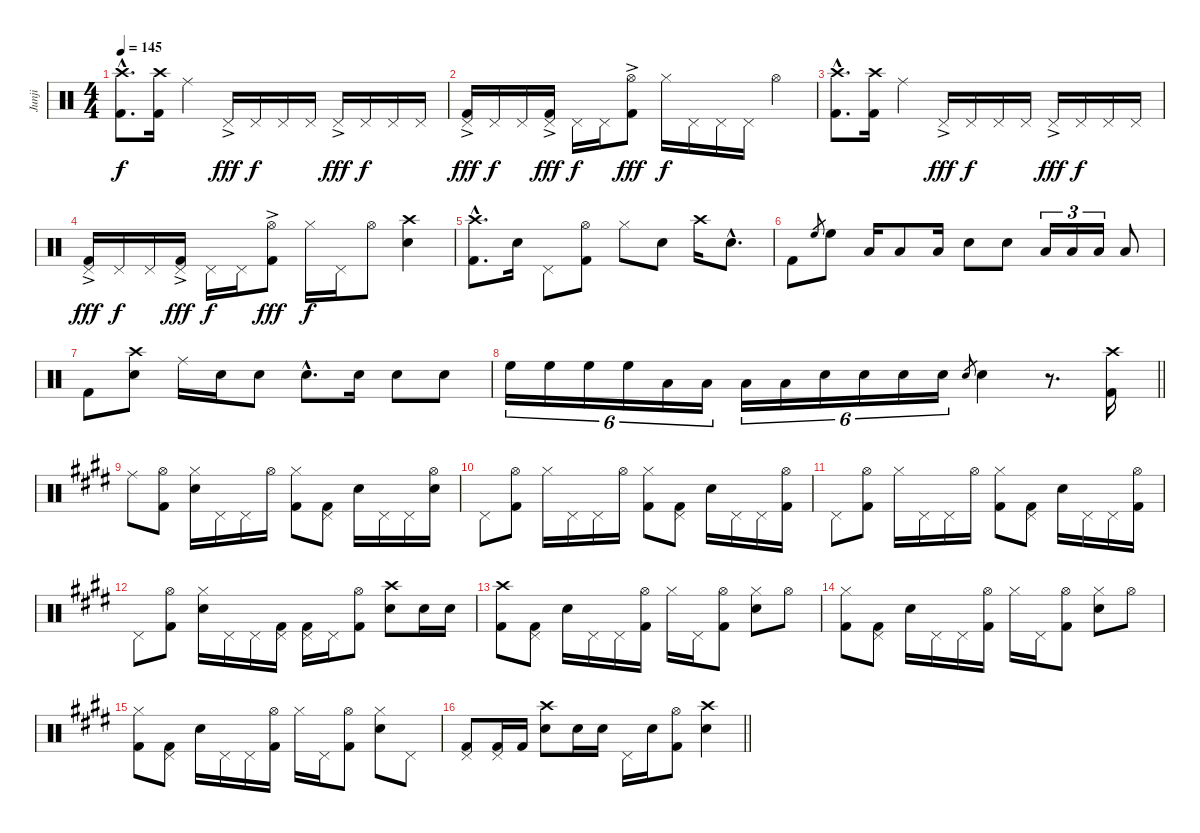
\track ("Junji" "Junji") {instrument percussion}
\staff {score}
\articulation defaults
\ts (4 4)
\tempo 145
\clef neutral
\ks c
("Crash high (hit)"{hac} "Kick (hit) 2"{hac}).8{d dy f} ("Crash high (hit)" "Kick (hit) 2").16 "Ride (middle)".4 "Pedal Hi-Hat (hit)"{ac}.16{dy fff} "Pedal Hi-Hat (hit)".16{dy f} "Pedal Hi-Hat (hit)".16 "Pedal Hi-Hat (hit)".16 "Pedal Hi-Hat (hit)"{ac}.16{dy fff} "Pedal Hi-Hat (hit)".16{dy f} "Pedal Hi-Hat (hit)".16 "Pedal Hi-Hat (hit)".16 |
("Pedal Hi-Hat (hit)"{ac} "Kick (hit) 2").16{dy fff} "Pedal Hi-Hat (hit)".16{dy f} "Pedal Hi-Hat (hit)".16 ("Pedal Hi-Hat (hit)"{ac} "Kick (hit) 2").16{dy fff} "Pedal Hi-Hat (hit)".16{dy f} "Pedal Hi-Hat (hit)".16 ("Hi-Hat (open)"{ac} "Kick (hit) 2").8{dy fff} "Hi-Hat (closed)".16{dy f} "Pedal Hi-Hat (hit)".16 "Pedal Hi-Hat (hit)".16 "Pedal Hi-Hat (hit)".16 "Hi-Hat (open)".4 |
("Crash high (hit)"{hac} "Kick (hit) 2"{hac}).8{d} ("Crash high (hit)" "Kick (hit) 2").16 "Ride (middle)".4 "Pedal Hi-Hat (hit)"{ac}.16{dy fff} "Pedal Hi-Hat (hit)".16{dy f} "Pedal Hi-Hat (hit)".16 "Pedal Hi-Hat (hit)".16 "Pedal Hi-Hat (hit)"{ac}.16{dy fff} "Pedal Hi-Hat (hit)".16{dy f} "Pedal Hi-Hat (hit)".16 "Pedal Hi-Hat (hit)".16 |
("Pedal Hi-Hat (hit)"{ac} "Kick (hit) 2").16{dy fff} "Pedal Hi-Hat (hit)".16{dy f} "Pedal Hi-Hat (hit)".16 ("Pedal Hi-Hat (hit)"{ac} "Kick (hit) 2").16{dy fff} "Pedal Hi-Hat (hit)".16{dy f} "Pedal Hi-Hat (hit)".16 ("Hi-Hat (open)"{ac} "Kick (hit) 2").8{dy fff} "Hi-Hat (closed)".16{dy f} "Pedal Hi-Hat (hit)".16 "Hi-Hat (open)".8 ("Crash high (hit)" "Snare (hit) 2").4 |
("Crash high (hit)"{hac} "Kick (hit) 2"{hac}).8{d} "Snare (hit) 2".16 "Pedal Hi-Hat (hit)".8 ("Hi-Hat (open)" "Kick (hit) 2").8 "Hi-Hat (closed)".8 "Snare (hit) 2".8 "Crash high (hit)".16 "Snare (hit) 2"{hac}.8{d} |
"Kick (hit) 2".8 "High Floor Tom (hit)".8{gr} "High Floor Tom (hit)".8 "Low Tom (hit)".16 "Low Tom (hit)".8 "Low Tom (hit)".16 "Electric Snare (hit)".8 "Electric Snare (hit)".8 "Low Floor Tom (hit)".16{tu (3 2)} "Low Floor Tom (hit)".16{tu (3 2)} "Low Floor Tom (hit)".16{tu (3 2)} "Low Floor Tom (hit)".8 |
"Kick (hit) 2".8 ("Crash high (hit)" "Snare (hit) 2").8 "Ride (middle)".16 "Snare (hit) 2".16 "Snare (hit) 2".8 "Electric Snare (hit)"{hac}.8{d} "Snare (hit) 2".16 "Snare (hit) 2".8 "Electric Snare (hit)".8 |
\barLineRight lightlight "High Floor Tom (hit)".16{tu (6 4)} "High Floor Tom (hit)".16{tu (6 4)} "High Floor Tom (hit)".16{tu (6 4)} "High Floor Tom (hit)".16{tu (6 4)} "Low Tom (hit)".16{tu (6 4)} "Low Tom (hit)".16{tu (6 4)} "Low Tom (hit)".16{tu (6 4)} "Low Tom (hit)".16{tu (6 4)} "Electric Snare (hit)".16{tu (6 4)} "Electric Snare (hit)".16{tu (6 4)} "Electric Snare (hit)".16{tu (6 4)} "Electric Snare (hit)".16{tu (6 4)} "Snare (hit) 2".8{gr} "Snare (hit) 2".4
r.8{d} ("Crash high (hit)" "Kick (hit) 2").16 |
\ks c#minor "Ride (middle)".8
("Hi-Hat (open)" "Kick (hit) 2").8 ("Hi-Hat (closed)" "Snare (hit) 2").16 "Pedal Hi-Hat (hit)".16 "Pedal Hi-Hat (hit)".16 "Hi-Hat (open)".16 ("Hi-Hat (closed)" "Kick (hit) 2").8 ("Pedal Hi-Hat (hit)" "Kick (hit) 2").8 "Snare (hit) 2".16 "Pedal Hi-Hat (hit)".16 "Pedal Hi-Hat (hit)".16 ("Hi-Hat (open)" "Snare (hit) 2").16 |
"Pedal Hi-Hat (hit)".8 ("Hi-Hat (open)" "Kick (hit) 2").8 "Hi-Hat (closed)".16 "Pedal Hi-Hat (hit)".16 "Pedal Hi-Hat (hit)".16 "Hi-Hat (open)".16 ("Hi-Hat (closed)" "Kick (hit) 2").8 ("Pedal Hi-Hat (hit)" "Kick (hit) 2").8 "Snare (hit) 2".16 "Pedal Hi-Hat (hit)".16 "Pedal Hi-Hat (hit)".16 ("Hi-Hat (open)" "Kick (hit) 2").16 |
"Pedal Hi-Hat (hit)".8 ("Hi-Hat (open)" "Kick (hit) 2").8 "Hi-Hat (closed)".16 "Pedal Hi-Hat (hit)".16 "Pedal Hi-Hat (hit)".16 "Hi-Hat (open)".16 ("Hi-Hat (closed)" "Kick (hit) 2").8 ("Pedal Hi-Hat (hit)" "Kick (hit) 2").8 "Snare (hit) 2".16 "Pedal Hi-Hat (hit)".16 "Pedal Hi-Hat (hit)".16 ("Hi-Hat (open)" "Kick (hit) 2").16 |
"Pedal Hi-Hat (hit)".8 ("Hi-Hat (open)" "Kick (hit) 2").8 ("Hi-Hat (closed)" "Snare (hit) 2").16 "Pedal Hi-Hat (hit)".16 "Pedal Hi-Hat (hit)".16 ("Pedal Hi-Hat (hit)" "Kick (hit) 2").16 ("Pedal Hi-Hat (hit)" "Kick (hit) 2").16 "Pedal Hi-Hat (hit)".16 ("Hi-Hat (open)" "Kick (hit) 2").8 ("Crash high (hit)" "Snare (hit) 2").8 "Snare (hit) 2".16 "Snare (hit) 2".16 |
("Crash high (hit)" "Kick (hit) 2").8 ("Pedal Hi-Hat (hit)" "Kick (hit) 2").8 "Snare (hit) 2".16 "Pedal Hi-Hat (hit)".16 "Pedal Hi-Hat (hit)".16 ("Hi-Hat (open)" "Kick (hit) 2").16 "Hi-Hat (closed)".16 "Pedal Hi-Hat (hit)".16 ("Hi-Hat (open)" "Kick (hit) 2").8 ("Hi-Hat (closed)" "Snare (hit) 2").8 "Hi-Hat (open)".8 |
("Hi-Hat (closed)" "Kick (hit) 2").8 ("Pedal Hi-Hat (hit)" "Kick (hit) 2").8 "Snare (hit) 2".16 "Pedal Hi-Hat (hit)".16 "Pedal Hi-Hat (hit)".16 ("Hi-Hat (open)" "Kick (hit) 2").16 "Hi-Hat (closed)".16 "Pedal Hi-Hat (hit)".16 ("Hi-Hat (open)" "Kick (hit) 2").8 ("Hi-Hat (closed)" "Snare (hit) 2").8 "Hi-Hat (open)".8 |
("Hi-Hat (closed)" "Kick (hit) 2").8 ("Pedal Hi-Hat (hit)" "Kick (hit) 2").8 "Snare (hit) 2".16 "Pedal Hi-Hat (hit)".16 "Pedal Hi-Hat (hit)".16 ("Hi-Hat (open)" "Kick (hit) 2").16 "Hi-Hat (closed)".16 "Pedal Hi-Hat (hit)".16 ("Hi-Hat (open)" "Kick (hit) 2").8 ("Hi-Hat (closed)" "Snare (hit) 2").8 "Pedal Hi-Hat (hit)".8 |
\barLineRight lightlight
("Pedal Hi-Hat (hit)" "Kick (hit) 2").8 ("Pedal Hi-Hat (hit)" "Kick (hit) 2").16 "Kick (hit) 2".16 ("Crash high (hit)" "Snare (hit) 2").8 "Snare (hit) 2".16 "Snare (hit) 2".16 "Pedal Hi-Hat (hit)".16 "Snare (hit) 2".16 ("Hi-Hat (open)" "Kick (hit) 2").8 ("Crash high (hit)" "Snare (hit) 2").4
